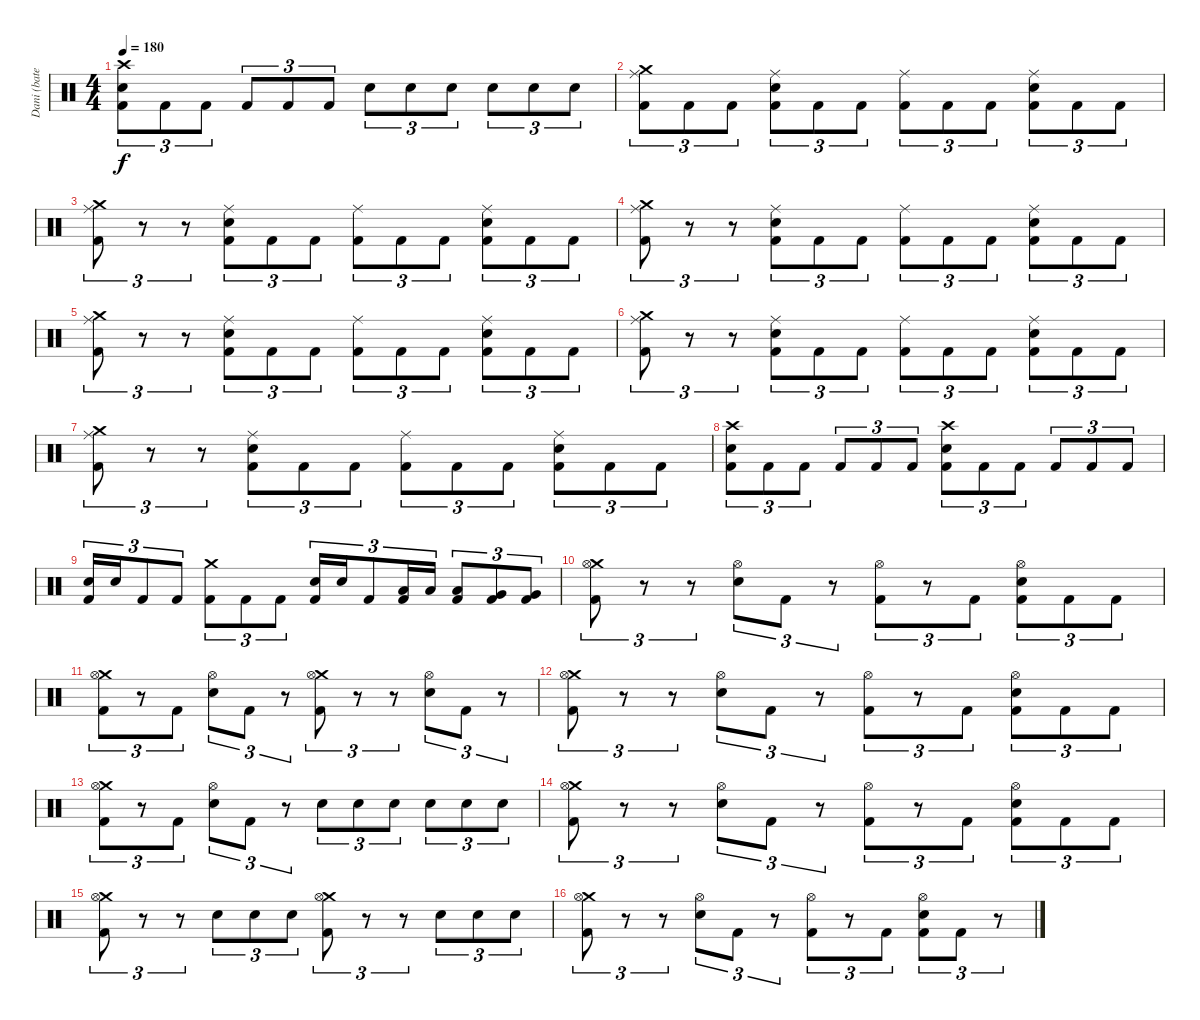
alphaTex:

\track ("Dani (bateria)" "Dani (bate") {instrument percussion}
\staff {score}
\articulation defaults
\ts (4 4)
\tempo 180
\clef neutral
\ks c
("Crash high (hit)" "Electric Snare (hit)" "Kick (hit) 2").8{tu (3 2) dy f} "Kick (hit) 2".8{tu (3 2)} "Kick (hit) 2".8{tu (3 2)} "Kick (hit) 2".8{tu (3 2)} "Kick (hit) 2".8{tu (3 2)} "Kick (hit) 2".8{tu (3 2)} "Electric Snare (hit)".8{tu (3 2)} "Electric Snare (hit)".8{tu (3 2)} "Electric Snare (hit)".8{tu (3 2)} "Electric Snare (hit)".8{tu (3 2)} "Electric Snare (hit)".8{tu (3 2)} "Electric Snare (hit)".8{tu (3 2)} |
("Crash medium (hit)" "Ride (middle)" "Kick (hit) 2").8{tu (3 2)} "Kick (hit) 2".8{tu (3 2)} "Kick (hit) 2".8{tu (3 2)} ("Ride (middle)" "Electric Snare (hit)" "Kick (hit) 2").8{tu (3 2)} "Kick (hit) 2".8{tu (3 2)} "Kick (hit) 2".8{tu (3 2)} ("Ride (middle)" "Kick (hit) 2").8{tu (3 2)} "Kick (hit) 2".8{tu (3 2)} "Kick (hit) 2".8{tu (3 2)} ("Ride (middle)" "Electric Snare (hit)" "Kick (hit) 2").8{tu (3 2)} "Kick (hit) 2".8{tu (3 2)} "Kick (hit) 2".8{tu (3 2)} |
("Crash medium (hit)" "Ride (middle)" "Kick (hit) 2").8{tu (3 2)} r.8{tu (3 2)} r.8{tu (3 2)} ("Ride (middle)" "Electric Snare (hit)" "Kick (hit) 2").8{tu (3 2)} "Kick (hit) 2".8{tu (3 2)} "Kick (hit) 2".8{tu (3 2)} ("Ride (middle)" "Kick (hit) 2").8{tu (3 2)} "Kick (hit) 2".8{tu (3 2)} "Kick (hit) 2".8{tu (3 2)} ("Ride (middle)" "Electric Snare (hit)" "Kick (hit) 2").8{tu (3 2)} "Kick (hit) 2".8{tu (3 2)} "Kick (hit) 2".8{tu (3 2)} |
("Crash medium (hit)" "Ride (middle)" "Kick (hit) 2").8{tu (3 2)} r.8{tu (3 2)} r.8{tu (3 2)} ("Ride (middle)" "Electric Snare (hit)" "Kick (hit) 2").8{tu (3 2)} "Kick (hit) 2".8{tu (3 2)} "Kick (hit) 2".8{tu (3 2)} ("Ride (middle)" "Kick (hit) 2").8{tu (3 2)} "Kick (hit) 2".8{tu (3 2)} "Kick (hit) 2".8{tu (3 2)} ("Ride (middle)" "Electric Snare (hit)" "Kick (hit) 2").8{tu (3 2)} "Kick (hit) 2".8{tu (3 2)} "Kick (hit) 2".8{tu (3 2)} |
("Crash medium (hit)" "Ride (middle)" "Kick (hit) 2").8{tu (3 2)} r.8{tu (3 2)} r.8{tu (3 2)} ("Ride (middle)" "Electric Snare (hit)" "Kick (hit) 2").8{tu (3 2)} "Kick (hit) 2".8{tu (3 2)} "Kick (hit) 2".8{tu (3 2)} ("Ride (middle)" "Kick (hit) 2").8{tu (3 2)} "Kick (hit) 2".8{tu (3 2)} "Kick (hit) 2".8{tu (3 2)} ("Ride (middle)" "Electric Snare (hit)" "Kick (hit) 2").8{tu (3 2)} "Kick (hit) 2".8{tu (3 2)} "Kick (hit) 2".8{tu (3 2)} |
("Crash medium (hit)" "Ride (middle)" "Kick (hit) 2").8{tu (3 2)} r.8{tu (3 2)} r.8{tu (3 2)} ("Ride (middle)" "Electric Snare (hit)" "Kick (hit) 2").8{tu (3 2)} "Kick (hit) 2".8{tu (3 2)} "Kick (hit) 2".8{tu (3 2)} ("Ride (middle)" "Kick (hit) 2").8{tu (3 2)} "Kick (hit) 2".8{tu (3 2)} "Kick (hit) 2".8{tu (3 2)} ("Ride (middle)" "Electric Snare (hit)" "Kick (hit) 2").8{tu (3 2)} "Kick (hit) 2".8{tu (3 2)} "Kick (hit) 2".8{tu (3 2)} |
("Crash medium (hit)" "Ride (middle)" "Kick (hit) 2").8{tu (3 2)} r.8{tu (3 2)} r.8{tu (3 2)} ("Ride (middle)" "Electric Snare (hit)" "Kick (hit) 2").8{tu (3 2)} "Kick (hit) 2".8{tu (3 2)} "Kick (hit) 2".8{tu (3 2)} ("Ride (middle)" "Kick (hit) 2").8{tu (3 2)} "Kick (hit) 2".8{tu (3 2)} "Kick (hit) 2".8{tu (3 2)} ("Ride (middle)" "Electric Snare (hit)" "Kick (hit) 2").8{tu (3 2)} "Kick (hit) 2".8{tu (3 2)} "Kick (hit) 2".8{tu (3 2)} |
("Crash high (hit)" "Electric Snare (hit)" "Kick (hit) 2").8{tu (3 2)} "Kick (hit) 2".8{tu (3 2)} "Kick (hit) 2".8{tu (3 2)} "Kick (hit) 2".8{tu (3 2)} "Kick (hit) 2".8{tu (3 2)} "Kick (hit) 2".8{tu (3 2)} ("Crash high (hit)" "Electric Snare (hit)" "Kick (hit) 2").8{tu (3 2)} "Kick (hit) 2".8{tu (3 2)} "Kick (hit) 2".8{tu (3 2)} "Kick (hit) 2".8{tu (3 2)} "Kick (hit) 2".8{tu (3 2)} "Kick (hit) 2".8{tu (3 2)} |
("Electric Snare (hit)" "Kick (hit) 2").16{tu (3 2)} "Electric Snare (hit)".16{tu (3 2)} "Kick (hit) 2".8{tu (3 2)} "Kick (hit) 2".8{tu (3 2)} ("Crash medium (hit)" "Kick (hit) 2").8{tu (3 2)} "Kick (hit) 2".8{tu (3 2)} "Kick (hit) 2".8{tu (3 2)} ("Electric Snare (hit)" "Kick (hit) 2").16{tu (3 2)} "Electric Snare (hit)".16{tu (3 2)} "Kick (hit) 2".8{tu (3 2)} ("Low Tom (hit)" "Kick (hit) 2").16{tu (3 2)} "Low Tom (hit)".16{tu (3 2)} ("Low Tom (hit)" "Kick (hit) 2").8{tu (3 2)} ("Very Low Tom (hit)" "Kick (hit) 2").8{tu (3 2)} ("Very Low Tom (hit)" "Kick (hit) 2").8{tu (3 2)} |
("Crash medium (hit)" "Hi-Hat (open)" "Kick (hit) 2").8{tu (3 2)} r.8{tu (3 2)} r.8{tu (3 2)} ("Hi-Hat (open)" "Electric Snare (hit)").8{tu (3 2)} "Kick (hit) 2".8{tu (3 2)} r.8{tu (3 2)} ("Hi-Hat (open)" "Kick (hit) 2").8{tu (3 2)} r.8{tu (3 2)} "Kick (hit) 2".8{tu (3 2)} ("Hi-Hat (open)" "Electric Snare (hit)" "Kick (hit) 2").8{tu (3 2)} "Kick (hit) 2".8{tu (3 2)} "Kick (hit) 2".8{tu (3 2)} |
("Crash medium (hit)" "Hi-Hat (open)" "Kick (hit) 2").8{tu (3 2)} r.8{tu (3 2)} "Kick (hit) 2".8{tu (3 2)} ("Hi-Hat (open)" "Electric Snare (hit)").8{tu (3 2)} "Kick (hit) 2".8{tu (3 2)} r.8{tu (3 2)} ("Crash medium (hit)" "Hi-Hat (open)" "Kick (hit) 2").8{tu (3 2)} r.8{tu (3 2)} r.8{tu (3 2)} ("Hi-Hat (open)" "Electric Snare (hit)").8{tu (3 2)} "Kick (hit) 2".8{tu (3 2)} r.8{tu (3 2)} |
("Crash medium (hit)" "Hi-Hat (open)" "Kick (hit) 2").8{tu (3 2)} r.8{tu (3 2)} r.8{tu (3 2)} ("Hi-Hat (open)" "Electric Snare (hit)").8{tu (3 2)} "Kick (hit) 2".8{tu (3 2)} r.8{tu (3 2)} ("Hi-Hat (open)" "Kick (hit) 2").8{tu (3 2)} r.8{tu (3 2)} "Kick (hit) 2".8{tu (3 2)} ("Hi-Hat (open)" "Electric Snare (hit)" "Kick (hit) 2").8{tu (3 2)} "Kick (hit) 2".8{tu (3 2)} "Kick (hit) 2".8{tu (3 2)} |
("Crash medium (hit)" "Hi-Hat (open)" "Kick (hit) 2").8{tu (3 2)} r.8{tu (3 2)} "Kick (hit) 2".8{tu (3 2)} ("Hi-Hat (open)" "Electric Snare (hit)").8{tu (3 2)} "Kick (hit) 2".8{tu (3 2)} r.8{tu (3 2)} "Electric Snare (hit)".8{tu (3 2)} "Electric Snare (hit)".8{tu (3 2)} "Electric Snare (hit)".8{tu (3 2)} "Electric Snare (hit)".8{tu (3 2)} "Electric Snare (hit)".8{tu (3 2)} "Electric Snare (hit)".8{tu (3 2)} |
("Crash medium (hit)" "Hi-Hat (open)" "Kick (hit) 2").8{tu (3 2)} r.8{tu (3 2)} r.8{tu (3 2)} ("Hi-Hat (open)" "Electric Snare (hit)").8{tu (3 2)} "Kick (hit) 2".8{tu (3 2)} r.8{tu (3 2)} ("Hi-Hat (open)" "Kick (hit) 2").8{tu (3 2)} r.8{tu (3 2)} "Kick (hit) 2".8{tu (3 2)} ("Hi-Hat (open)" "Electric Snare (hit)" "Kick (hit) 2").8{tu (3 2)} "Kick (hit) 2".8{tu (3 2)} "Kick (hit) 2".8{tu (3 2)} |
("Crash medium (hit)" "Hi-Hat (open)" "Kick (hit) 2").8{tu (3 2)} r.8{tu (3 2)} r.8{tu (3 2)} "Electric Snare (hit)".8{tu (3 2)} "Electric Snare (hit)".8{tu (3 2)} "Electric Snare (hit)".8{tu (3 2)} ("Crash medium (hit)" "Hi-Hat (open)" "Kick (hit) 2").8{tu (3 2)} r.8{tu (3 2)} r.8{tu (3 2)} "Electric Snare (hit)".8{tu (3 2)} "Electric Snare (hit)".8{tu (3 2)} "Electric Snare (hit)".8{tu (3 2)} |
("Crash medium (hit)" "Hi-Hat (open)" "Kick (hit) 2").8{tu (3 2)} r.8{tu (3 2)} r.8{tu (3 2)} ("Hi-Hat (open)" "Electric Snare (hit)").8{tu (3 2)} "Kick (hit) 2".8{tu (3 2)} r.8{tu (3 2)} ("Hi-Hat (open)" "Kick (hit) 2").8{tu (3 2)} r.8{tu (3 2)} "Kick (hit) 2".8{tu (3 2)} ("Hi-Hat (open)" "Electric Snare (hit)" "Kick (hit) 2").8{tu (3 2)} "Kick (hit) 2".8{tu (3 2)} r.8{tu (3 2)}
